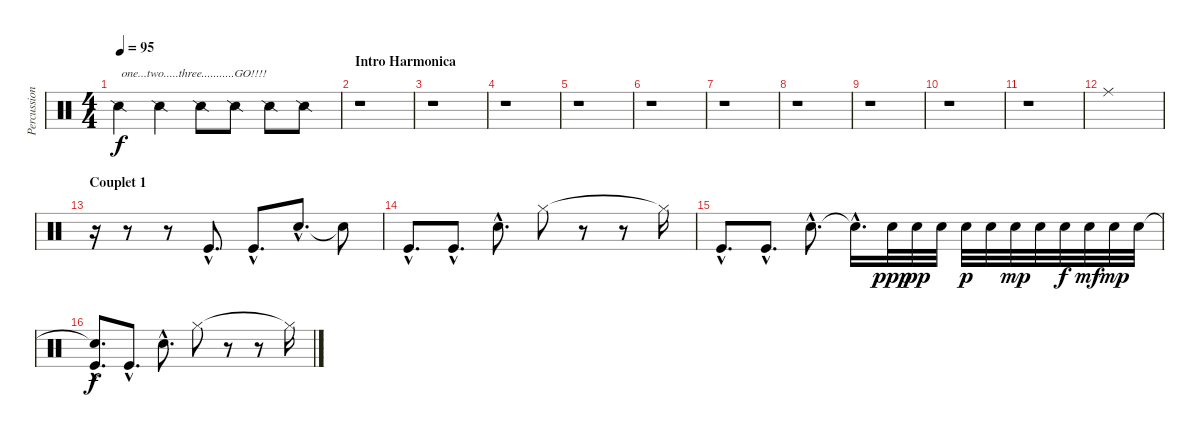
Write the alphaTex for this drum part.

\track ("Percussions " "Percussion") {instrument percussion}
\staff {score}
\articulation defaults
\ts (4 4)
\tempo 95
\clef neutral
\ks c "Snare (side stick) 2".4{txt "one...two.....three...........GO!!!!" dy f} "Snare (side stick) 2".4 "Snare (side stick) 2".8 "Snare (side stick) 2".8 "Snare (side stick) 2".8 "Snare (side stick) 2".8
|
\section ("" "Intro Harmonica")
r.1 |
r.1 |
r.1 |
r.1 |
r.1 |
r.1 |
r.1 |
r.1 |
r.1 |
r.1 |
"Ride (middle)".1 |
\section ("" "Couplet 1")
r.16 r.8 r.8 "Kick (hit)"{hac}.8{d} "Kick (hit)"{hac}.8{d} "Electric Snare (hit)"{hac}.8{d} "Snare (hit)"{t}.8 |
"Kick (hit)"{hac}.8{d} "Kick (hit)"{hac}.8{d} "Electric Snare (hit)"{hac}.8{d} "Hi-Hat (closed)".8 r.8 r.8 "Hi-Hat (closed)"{t}.16 |
"Kick (hit)"{hac}.8{d} "Kick (hit)"{hac}.8{d} "Electric Snare (hit)"{hac}.8{d} "Snare (hit)"{hac t}.16{d} "Electric Snare (hit)".32{dy ppp} "Electric Snare (hit)".32{dy pp} "Electric Snare (hit)".32 "Electric Snare (hit)".32{dy p} "Electric Snare (hit)".32 "Electric Snare (hit)".32{dy mp} "Electric Snare (hit)".32 "Electric Snare (hit)".32{dy f} "Electric Snare (hit)".32{dy mf} "Electric Snare (hit)".32{dy mp} "Electric Snare (hit)".32 |
("Snare (hit)"{hac t} "Kick (hit)"{hac}).8{d dy f} "Kick (hit)"{hac}.8{d} "Electric Snare (hit)"{hac}.8{d} "Hi-Hat (closed)".8 r.8 r.8 "Hi-Hat (closed)"{t}.16
